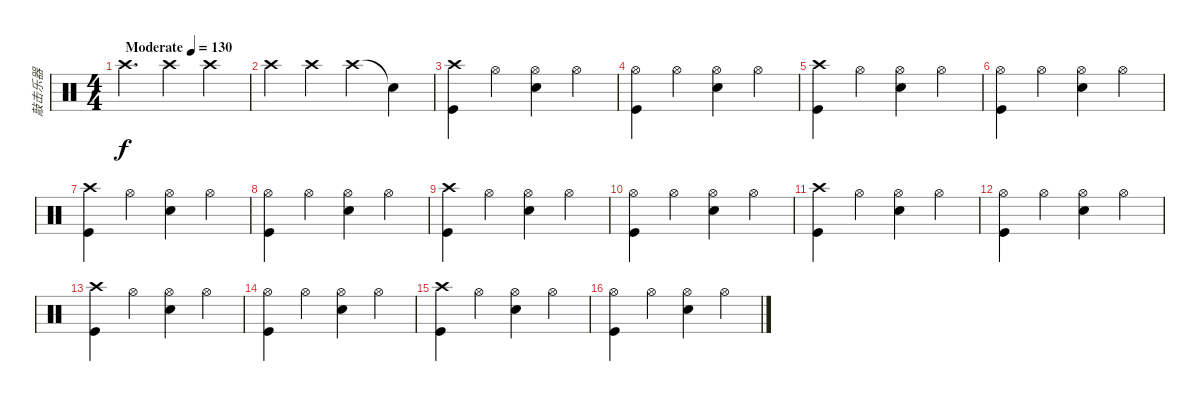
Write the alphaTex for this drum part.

\track ("敲击乐器" "敲击乐器") {instrument percussion}
\staff {score}
\articulation defaults
\ts (4 4)
\tempo (130 "Moderate")
\clef neutral
\ks c "Crash high (hit)".4{d dy f} "Crash high (hit)".4 "Crash high (hit)".4
|
"Crash high (hit)".4 "Crash high (hit)".4 "Crash high (hit)".4 "Snare (hit)"{t}.4 |
("Crash high (hit)" "Kick (hit)").4 "Hi-Hat (open)".4 ("Hi-Hat (open)" "Electric Snare (hit)").4 "Hi-Hat (open)".4 |
("Hi-Hat (open)" "Kick (hit)").4 "Hi-Hat (open)".4 ("Hi-Hat (open)" "Electric Snare (hit)").4 "Hi-Hat (open)".4 |
("Crash high (hit)" "Kick (hit)").4 "Hi-Hat (open)".4 ("Hi-Hat (open)" "Electric Snare (hit)").4 "Hi-Hat (open)".4 |
("Hi-Hat (open)" "Kick (hit)").4 "Hi-Hat (open)".4 ("Hi-Hat (open)" "Electric Snare (hit)").4 "Hi-Hat (open)".4 |
("Crash high (hit)" "Kick (hit)").4 "Hi-Hat (open)".4 ("Hi-Hat (open)" "Electric Snare (hit)").4 "Hi-Hat (open)".4 |
("Hi-Hat (open)" "Kick (hit)").4 "Hi-Hat (open)".4 ("Hi-Hat (open)" "Electric Snare (hit)").4 "Hi-Hat (open)".4 |
("Crash high (hit)" "Kick (hit)").4 "Hi-Hat (open)".4 ("Hi-Hat (open)" "Electric Snare (hit)").4 "Hi-Hat (open)".4 |
("Hi-Hat (open)" "Kick (hit)").4 "Hi-Hat (open)".4 ("Hi-Hat (open)" "Electric Snare (hit)").4 "Hi-Hat (open)".4 |
("Crash high (hit)" "Kick (hit)").4 "Hi-Hat (open)".4 ("Hi-Hat (open)" "Electric Snare (hit)").4 "Hi-Hat (open)".4 |
("Hi-Hat (open)" "Kick (hit)").4 "Hi-Hat (open)".4 ("Hi-Hat (open)" "Electric Snare (hit)").4 "Hi-Hat (open)".4 |
("Crash high (hit)" "Kick (hit)").4 "Hi-Hat (open)".4 ("Hi-Hat (open)" "Electric Snare (hit)").4 "Hi-Hat (open)".4 |
("Hi-Hat (open)" "Kick (hit)").4 "Hi-Hat (open)".4 ("Hi-Hat (open)" "Electric Snare (hit)").4 "Hi-Hat (open)".4 |
("Crash high (hit)" "Kick (hit)").4 "Hi-Hat (open)".4 ("Hi-Hat (open)" "Electric Snare (hit)").4 "Hi-Hat (open)".4 |
("Hi-Hat (open)" "Kick (hit)").4 "Hi-Hat (open)".4 ("Hi-Hat (open)" "Electric Snare (hit)").4 "Hi-Hat (open)".4
